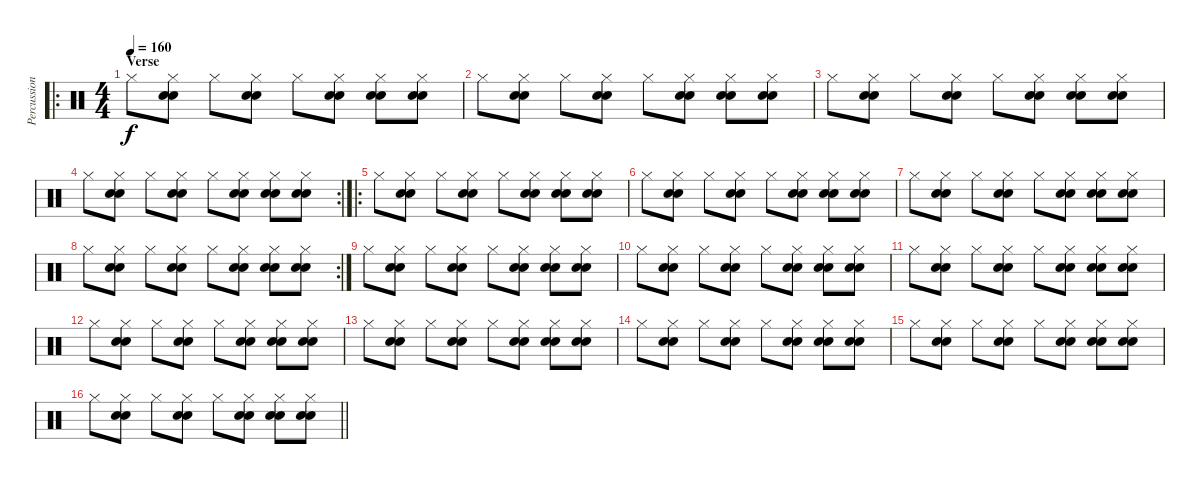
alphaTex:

\track ("Percussion" "Percussion") {instrument percussion}
\staff {score}
\articulation defaults
\ro
\ts (4 4)
\section ("" "Verse")
\tempo 160
\clef neutral
\ks c "Hi-Hat (closed)".8{dy f}
("Hi-Hat (closed)" "Electric Snare (hit)" "Electric Snare (hit)").8 "Hi-Hat (closed)".8 ("Hi-Hat (closed)" "Electric Snare (hit)" "Electric Snare (hit)").8 "Hi-Hat (closed)".8 ("Hi-Hat (closed)" "Electric Snare (hit)" "Electric Snare (hit)").8 ("Hi-Hat (closed)" "Electric Snare (hit)" "Electric Snare (hit)").8 ("Hi-Hat (closed)" "Electric Snare (hit)" "Electric Snare (hit)").8 |
"Hi-Hat (closed)".8 ("Hi-Hat (closed)" "Electric Snare (hit)" "Electric Snare (hit)").8 "Hi-Hat (closed)".8 ("Hi-Hat (closed)" "Electric Snare (hit)" "Electric Snare (hit)").8 "Hi-Hat (closed)".8 ("Hi-Hat (closed)" "Electric Snare (hit)" "Electric Snare (hit)").8 ("Hi-Hat (closed)" "Electric Snare (hit)" "Electric Snare (hit)").8 ("Hi-Hat (closed)" "Electric Snare (hit)" "Electric Snare (hit)").8 |
"Hi-Hat (closed)".8 ("Hi-Hat (closed)" "Electric Snare (hit)" "Electric Snare (hit)").8 "Hi-Hat (closed)".8 ("Hi-Hat (closed)" "Electric Snare (hit)" "Electric Snare (hit)").8 "Hi-Hat (closed)".8 ("Hi-Hat (closed)" "Electric Snare (hit)" "Electric Snare (hit)").8 ("Hi-Hat (closed)" "Electric Snare (hit)" "Electric Snare (hit)").8 ("Hi-Hat (closed)" "Electric Snare (hit)" "Electric Snare (hit)").8 |
\rc 2 "Hi-Hat (closed)".8
("Hi-Hat (closed)" "Electric Snare (hit)" "Electric Snare (hit)").8 "Hi-Hat (closed)".8 ("Hi-Hat (closed)" "Electric Snare (hit)" "Electric Snare (hit)").8 "Hi-Hat (closed)".8 ("Hi-Hat (closed)" "Electric Snare (hit)" "Electric Snare (hit)").8 ("Hi-Hat (closed)" "Electric Snare (hit)" "Electric Snare (hit)").8 ("Hi-Hat (closed)" "Electric Snare (hit)" "Electric Snare (hit)").8 |
\ro "Hi-Hat (closed)".8
("Hi-Hat (closed)" "Electric Snare (hit)" "Electric Snare (hit)").8 "Hi-Hat (closed)".8 ("Hi-Hat (closed)" "Electric Snare (hit)" "Electric Snare (hit)").8 "Hi-Hat (closed)".8 ("Hi-Hat (closed)" "Electric Snare (hit)" "Electric Snare (hit)").8 ("Hi-Hat (closed)" "Electric Snare (hit)" "Electric Snare (hit)").8 ("Hi-Hat (closed)" "Electric Snare (hit)" "Electric Snare (hit)").8 |
"Hi-Hat (closed)".8 ("Hi-Hat (closed)" "Electric Snare (hit)" "Electric Snare (hit)").8 "Hi-Hat (closed)".8 ("Hi-Hat (closed)" "Electric Snare (hit)" "Electric Snare (hit)").8 "Hi-Hat (closed)".8 ("Hi-Hat (closed)" "Electric Snare (hit)" "Electric Snare (hit)").8 ("Hi-Hat (closed)" "Electric Snare (hit)" "Electric Snare (hit)").8 ("Hi-Hat (closed)" "Electric Snare (hit)" "Electric Snare (hit)").8 |
"Hi-Hat (closed)".8 ("Hi-Hat (closed)" "Electric Snare (hit)" "Electric Snare (hit)").8 "Hi-Hat (closed)".8 ("Hi-Hat (closed)" "Electric Snare (hit)" "Electric Snare (hit)").8 "Hi-Hat (closed)".8 ("Hi-Hat (closed)" "Electric Snare (hit)" "Electric Snare (hit)").8 ("Hi-Hat (closed)" "Electric Snare (hit)" "Electric Snare (hit)").8 ("Hi-Hat (closed)" "Electric Snare (hit)" "Electric Snare (hit)").8 |
\rc 2 "Hi-Hat (closed)".8
("Hi-Hat (closed)" "Electric Snare (hit)" "Electric Snare (hit)").8 "Hi-Hat (closed)".8 ("Hi-Hat (closed)" "Electric Snare (hit)" "Electric Snare (hit)").8 "Hi-Hat (closed)".8 ("Hi-Hat (closed)" "Electric Snare (hit)" "Electric Snare (hit)").8 ("Hi-Hat (closed)" "Electric Snare (hit)" "Electric Snare (hit)").8 ("Hi-Hat (closed)" "Electric Snare (hit)" "Electric Snare (hit)").8 |
"Hi-Hat (closed)".8 ("Hi-Hat (closed)" "Electric Snare (hit)" "Electric Snare (hit)").8 "Hi-Hat (closed)".8 ("Hi-Hat (closed)" "Electric Snare (hit)" "Electric Snare (hit)").8 "Hi-Hat (closed)".8 ("Hi-Hat (closed)" "Electric Snare (hit)" "Electric Snare (hit)").8 ("Hi-Hat (closed)" "Electric Snare (hit)" "Electric Snare (hit)").8 ("Hi-Hat (closed)" "Electric Snare (hit)" "Electric Snare (hit)").8 |
"Hi-Hat (closed)".8 ("Hi-Hat (closed)" "Electric Snare (hit)" "Electric Snare (hit)").8 "Hi-Hat (closed)".8 ("Hi-Hat (closed)" "Electric Snare (hit)" "Electric Snare (hit)").8 "Hi-Hat (closed)".8 ("Hi-Hat (closed)" "Electric Snare (hit)" "Electric Snare (hit)").8 ("Hi-Hat (closed)" "Electric Snare (hit)" "Electric Snare (hit)").8 ("Hi-Hat (closed)" "Electric Snare (hit)" "Electric Snare (hit)").8 |
"Hi-Hat (closed)".8 ("Hi-Hat (closed)" "Electric Snare (hit)" "Electric Snare (hit)").8 "Hi-Hat (closed)".8 ("Hi-Hat (closed)" "Electric Snare (hit)" "Electric Snare (hit)").8 "Hi-Hat (closed)".8 ("Hi-Hat (closed)" "Electric Snare (hit)" "Electric Snare (hit)").8 ("Hi-Hat (closed)" "Electric Snare (hit)" "Electric Snare (hit)").8 ("Hi-Hat (closed)" "Electric Snare (hit)" "Electric Snare (hit)").8 |
"Hi-Hat (closed)".8 ("Hi-Hat (closed)" "Electric Snare (hit)" "Electric Snare (hit)").8 "Hi-Hat (closed)".8 ("Hi-Hat (closed)" "Electric Snare (hit)" "Electric Snare (hit)").8 "Hi-Hat (closed)".8 ("Hi-Hat (closed)" "Electric Snare (hit)" "Electric Snare (hit)").8 ("Hi-Hat (closed)" "Electric Snare (hit)" "Electric Snare (hit)").8 ("Hi-Hat (closed)" "Electric Snare (hit)" "Electric Snare (hit)").8 |
"Hi-Hat (closed)".8 ("Hi-Hat (closed)" "Electric Snare (hit)" "Electric Snare (hit)").8 "Hi-Hat (closed)".8 ("Hi-Hat (closed)" "Electric Snare (hit)" "Electric Snare (hit)").8 "Hi-Hat (closed)".8 ("Hi-Hat (closed)" "Electric Snare (hit)" "Electric Snare (hit)").8 ("Hi-Hat (closed)" "Electric Snare (hit)" "Electric Snare (hit)").8 ("Hi-Hat (closed)" "Electric Snare (hit)" "Electric Snare (hit)").8 |
"Hi-Hat (closed)".8 ("Hi-Hat (closed)" "Electric Snare (hit)" "Electric Snare (hit)").8 "Hi-Hat (closed)".8 ("Hi-Hat (closed)" "Electric Snare (hit)" "Electric Snare (hit)").8 "Hi-Hat (closed)".8 ("Hi-Hat (closed)" "Electric Snare (hit)" "Electric Snare (hit)").8 ("Hi-Hat (closed)" "Electric Snare (hit)" "Electric Snare (hit)").8 ("Hi-Hat (closed)" "Electric Snare (hit)" "Electric Snare (hit)").8 |
"Hi-Hat (closed)".8 ("Hi-Hat (closed)" "Electric Snare (hit)" "Electric Snare (hit)").8 "Hi-Hat (closed)".8 ("Hi-Hat (closed)" "Electric Snare (hit)" "Electric Snare (hit)").8 "Hi-Hat (closed)".8 ("Hi-Hat (closed)" "Electric Snare (hit)" "Electric Snare (hit)").8 ("Hi-Hat (closed)" "Electric Snare (hit)" "Electric Snare (hit)").8 ("Hi-Hat (closed)" "Electric Snare (hit)" "Electric Snare (hit)").8 |
\barLineRight lightlight "Hi-Hat (closed)".8
("Hi-Hat (closed)" "Electric Snare (hit)" "Electric Snare (hit)").8 "Hi-Hat (closed)".8 ("Hi-Hat (closed)" "Electric Snare (hit)" "Electric Snare (hit)").8 "Hi-Hat (closed)".8 ("Hi-Hat (closed)" "Electric Snare (hit)" "Electric Snare (hit)").8 ("Hi-Hat (closed)" "Electric Snare (hit)" "Electric Snare (hit)").8 ("Hi-Hat (closed)" "Electric Snare (hit)" "Electric Snare (hit)").8
